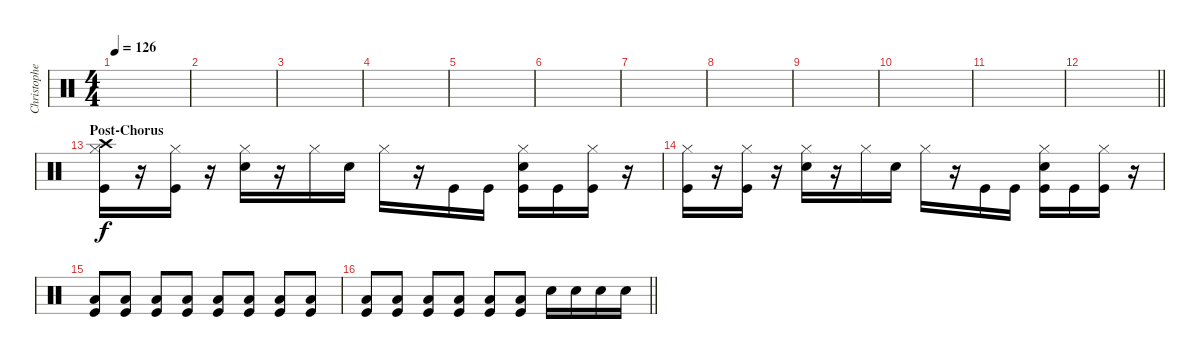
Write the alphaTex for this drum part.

\track ("Christopher - Drums" "Christophe") {mute instrument percussion}
\staff {score}
\articulation defaults
\ts (4 4)
\tempo 126
\clef neutral
\ks c
|
|
|
|
|
|
|
|
|
|
|
\barLineRight lightlight
|
\section ("" "Post-Chorus")
("Crash high (hit)" "Hi-Hat (closed)" "Kick (hit)").16 r.16 ("Hi-Hat (closed)" "Kick (hit)").16 r.16 ("Hi-Hat (closed)" "Snare (hit) 2").16 r.16 "Hi-Hat (closed)".16 "Snare (hit) 2".16 "Hi-Hat (closed)".16 r.16 "Kick (hit)".16 "Kick (hit)".16 ("Hi-Hat (closed)" "Snare (hit) 2" "Kick (hit)").16 "Kick (hit)".16 ("Hi-Hat (closed)" "Kick (hit)").16 r.16 |
("Hi-Hat (closed)" "Kick (hit)").16 r.16 ("Hi-Hat (closed)" "Kick (hit)").16 r.16 ("Hi-Hat (closed)" "Snare (hit) 2").16 r.16 "Hi-Hat (closed)".16 "Snare (hit) 2".16 "Hi-Hat (closed)".16 r.16 "Kick (hit)".16 "Kick (hit)".16 ("Hi-Hat (closed)" "Snare (hit) 2" "Kick (hit)").16 "Kick (hit)".16 ("Hi-Hat (closed)" "Kick (hit)").16 r.16 |
("Low Floor Tom (hit)" "Kick (hit)").8 ("Low Floor Tom (hit)" "Kick (hit)").8 ("Low Floor Tom (hit)" "Kick (hit)").8 ("Low Floor Tom (hit)" "Kick (hit)").8 ("Low Floor Tom (hit)" "Kick (hit)").8 ("Low Floor Tom (hit)" "Kick (hit)").8 ("Low Floor Tom (hit)" "Kick (hit)").8 ("Low Floor Tom (hit)" "Kick (hit)").8 |
\barLineRight lightlight
("Low Floor Tom (hit)" "Kick (hit)").8 ("Low Floor Tom (hit)" "Kick (hit)").8 ("Low Floor Tom (hit)" "Kick (hit)").8 ("Low Floor Tom (hit)" "Kick (hit)").8 ("Low Floor Tom (hit)" "Kick (hit)").8 ("Low Floor Tom (hit)" "Kick (hit)").8 "Snare (hit) 2".16 "Snare (hit) 2".16 "Snare (hit) 2".16 "Snare (hit) 2".16
